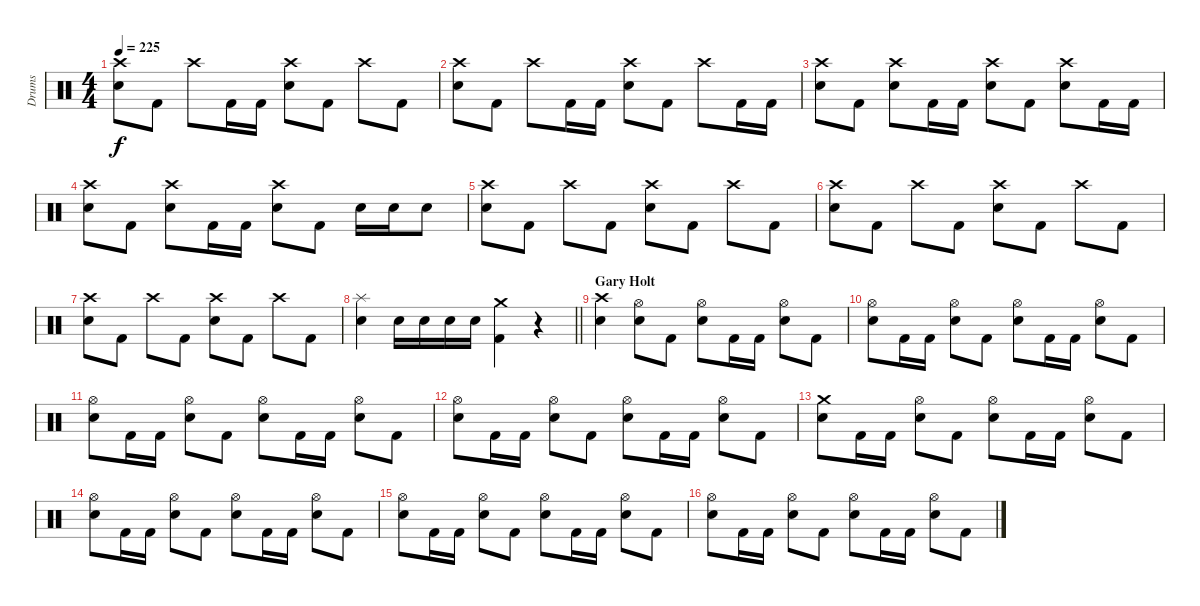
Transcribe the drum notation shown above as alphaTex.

\track ("Drums" "Drums") {instrument percussion}
\staff {score}
\articulation defaults
\ts (4 4)
\tempo 225
\clef neutral
\ks c
("Crash high (hit)" "Electric Snare (hit)").8{dy f} "Kick (hit) 2".8 "Crash high (hit)".8 "Kick (hit) 2".16 "Kick (hit) 2".16 ("Crash high (hit)" "Electric Snare (hit)").8 "Kick (hit) 2".8 "Crash high (hit)".8 "Kick (hit) 2".8 |
("Crash high (hit)" "Electric Snare (hit)").8 "Kick (hit) 2".8 "Crash high (hit)".8 "Kick (hit) 2".16 "Kick (hit) 2".16 ("Crash high (hit)" "Electric Snare (hit)").8 "Kick (hit) 2".8 "Crash high (hit)".8 "Kick (hit) 2".16 "Kick (hit) 2".16 |
("Crash high (hit)" "Electric Snare (hit)").8 "Kick (hit) 2".8 ("Crash high (hit)" "Electric Snare (hit)").8 "Kick (hit) 2".16 "Kick (hit) 2".16 ("Crash high (hit)" "Electric Snare (hit)").8 "Kick (hit) 2".8 ("Crash high (hit)" "Electric Snare (hit)").8 "Kick (hit) 2".16 "Kick (hit) 2".16 |
("Crash high (hit)" "Electric Snare (hit)").8 "Kick (hit) 2".8 ("Crash high (hit)" "Electric Snare (hit)").8 "Kick (hit) 2".16 "Kick (hit) 2".16 ("Crash high (hit)" "Electric Snare (hit)").8 "Kick (hit) 2".8 "Electric Snare (hit)".16 "Electric Snare (hit)".16 "Electric Snare (hit)".8 |
("Crash high (hit)" "Electric Snare (hit)").8 "Kick (hit) 2".8 "Crash high (hit)".8 "Kick (hit) 2".8 ("Crash high (hit)" "Electric Snare (hit)").8 "Kick (hit) 2".8 "Crash high (hit)".8 "Kick (hit) 2".8 |
("Crash high (hit)" "Electric Snare (hit)").8 "Kick (hit) 2".8 "Crash high (hit)".8 "Kick (hit) 2".8 ("Crash high (hit)" "Electric Snare (hit)").8 "Kick (hit) 2".8 "Crash high (hit)".8 "Kick (hit) 2".8 |
("Crash high (hit)" "Electric Snare (hit)").8 "Kick (hit) 2".8 "Crash high (hit)".8 "Kick (hit) 2".8 ("Crash high (hit)" "Electric Snare (hit)").8 "Kick (hit) 2".8 "Crash high (hit)".8 "Kick (hit) 2".8 |
\barLineRight lightlight
("Splash (hit)" "Electric Snare (hit)").4 "Electric Snare (hit)".16 "Electric Snare (hit)".16 "Electric Snare (hit)".16 "Electric Snare (hit)".16 ("Crash medium (hit)" "Kick (hit) 2").4 r.4 |
\section ("" "Gary Holt")
("Crash high (hit)" "Electric Snare (hit)").4 ("Hi-Hat (open)" "Electric Snare (hit)").8 "Kick (hit) 2".8 ("Hi-Hat (open)" "Electric Snare (hit)").8 "Kick (hit) 2".16 "Kick (hit) 2".16 ("Hi-Hat (open)" "Electric Snare (hit)").8 "Kick (hit) 2".8 |
("Hi-Hat (open)" "Electric Snare (hit)").8 "Kick (hit) 2".16 "Kick (hit) 2".16 ("Hi-Hat (open)" "Electric Snare (hit)").8 "Kick (hit) 2".8 ("Hi-Hat (open)" "Electric Snare (hit)").8 "Kick (hit) 2".16 "Kick (hit) 2".16 ("Hi-Hat (open)" "Electric Snare (hit)").8 "Kick (hit) 2".8 |
("Hi-Hat (open)" "Electric Snare (hit)").8 "Kick (hit) 2".16 "Kick (hit) 2".16 ("Hi-Hat (open)" "Electric Snare (hit)").8 "Kick (hit) 2".8 ("Hi-Hat (open)" "Electric Snare (hit)").8 "Kick (hit) 2".16 "Kick (hit) 2".16 ("Hi-Hat (open)" "Electric Snare (hit)").8 "Kick (hit) 2".8 |
("Hi-Hat (open)" "Electric Snare (hit)").8 "Kick (hit) 2".16 "Kick (hit) 2".16 ("Hi-Hat (open)" "Electric Snare (hit)").8 "Kick (hit) 2".8 ("Hi-Hat (open)" "Electric Snare (hit)").8 "Kick (hit) 2".16 "Kick (hit) 2".16 ("Hi-Hat (open)" "Electric Snare (hit)").8 "Kick (hit) 2".8 |
("Crash medium (hit)" "Electric Snare (hit)").8 "Kick (hit) 2".16 "Kick (hit) 2".16 ("Hi-Hat (open)" "Electric Snare (hit)").8 "Kick (hit) 2".8 ("Hi-Hat (open)" "Electric Snare (hit)").8 "Kick (hit) 2".16 "Kick (hit) 2".16 ("Hi-Hat (open)" "Electric Snare (hit)").8 "Kick (hit) 2".8 |
("Hi-Hat (open)" "Electric Snare (hit)").8 "Kick (hit) 2".16 "Kick (hit) 2".16 ("Hi-Hat (open)" "Electric Snare (hit)").8 "Kick (hit) 2".8 ("Hi-Hat (open)" "Electric Snare (hit)").8 "Kick (hit) 2".16 "Kick (hit) 2".16 ("Hi-Hat (open)" "Electric Snare (hit)").8 "Kick (hit) 2".8 |
("Hi-Hat (open)" "Electric Snare (hit)").8 "Kick (hit) 2".16 "Kick (hit) 2".16 ("Hi-Hat (open)" "Electric Snare (hit)").8 "Kick (hit) 2".8 ("Hi-Hat (open)" "Electric Snare (hit)").8 "Kick (hit) 2".16 "Kick (hit) 2".16 ("Hi-Hat (open)" "Electric Snare (hit)").8 "Kick (hit) 2".8 |
("Hi-Hat (open)" "Electric Snare (hit)").8 "Kick (hit) 2".16 "Kick (hit) 2".16 ("Hi-Hat (open)" "Electric Snare (hit)").8 "Kick (hit) 2".8 ("Hi-Hat (open)" "Electric Snare (hit)").8 "Kick (hit) 2".16 "Kick (hit) 2".16 ("Hi-Hat (open)" "Electric Snare (hit)").8 "Kick (hit) 2".8
